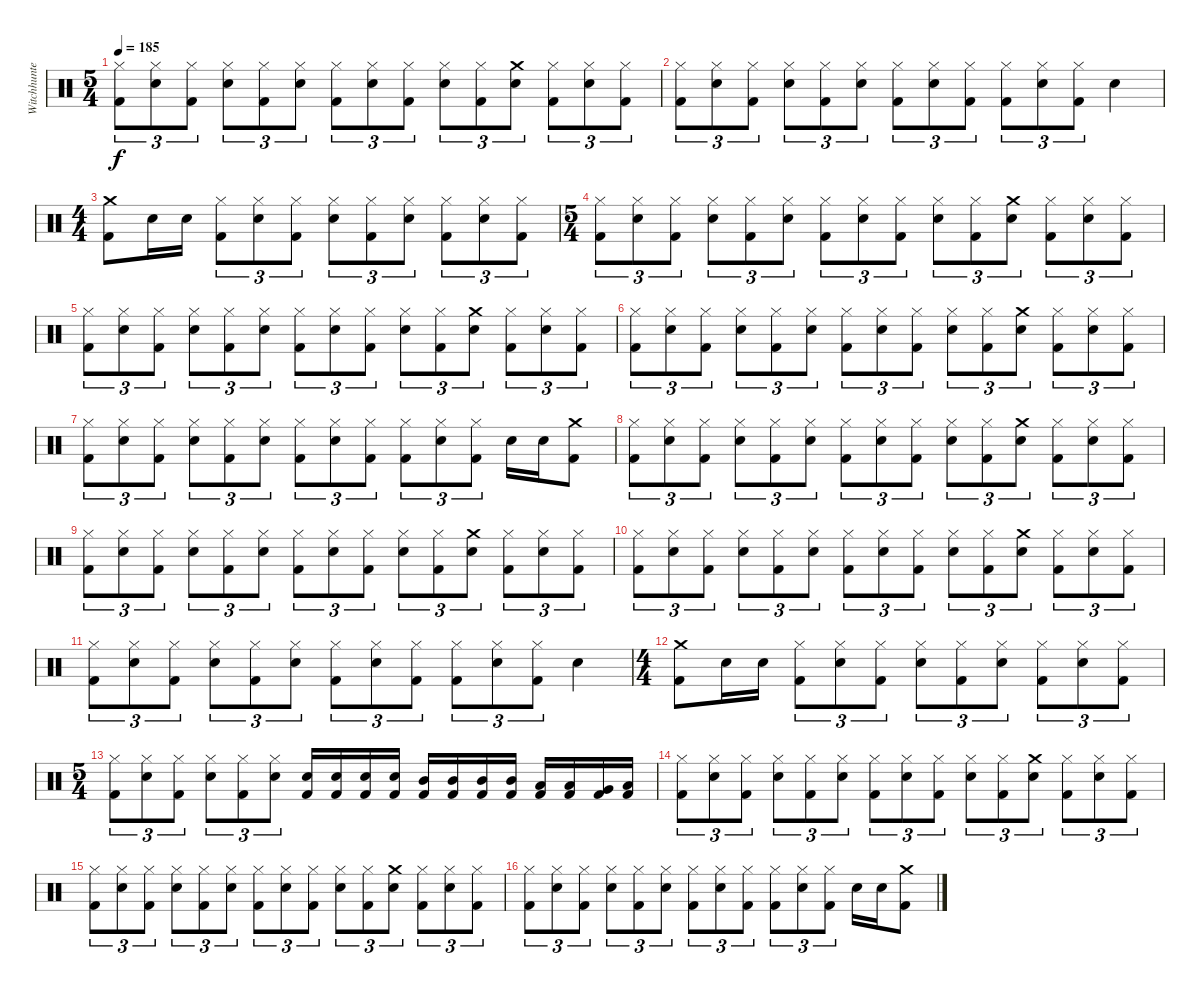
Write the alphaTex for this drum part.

\track ("Witchhunter" "Witchhunte") {instrument percussion}
\staff {score}
\articulation defaults
\ts (5 4)
\tempo 185
\clef neutral
\ks c
("Hi-Hat (closed)" "Kick (hit) 2").8{tu (3 2) dy f} ("Hi-Hat (closed)" "Snare (hit) 2").8{tu (3 2)} ("Hi-Hat (closed)" "Kick (hit) 2").8{tu (3 2)} ("Hi-Hat (closed)" "Snare (hit) 2").8{tu (3 2)} ("Hi-Hat (closed)" "Kick (hit) 2").8{tu (3 2)} ("Hi-Hat (closed)" "Snare (hit) 2").8{tu (3 2)} ("Hi-Hat (closed)" "Kick (hit) 2").8{tu (3 2)} ("Hi-Hat (closed)" "Snare (hit) 2").8{tu (3 2)} ("Hi-Hat (closed)" "Kick (hit) 2").8{tu (3 2)} ("Hi-Hat (closed)" "Snare (hit) 2").8{tu (3 2)} ("Hi-Hat (closed)" "Kick (hit) 2").8{tu (3 2)} ("Crash medium (hit)" "Snare (hit) 2").8{tu (3 2)} ("Hi-Hat (closed)" "Kick (hit) 2").8{tu (3 2)} ("Hi-Hat (closed)" "Snare (hit) 2").8{tu (3 2)} ("Hi-Hat (closed)" "Kick (hit) 2").8{tu (3 2)} |
("Hi-Hat (closed)" "Kick (hit) 2").8{tu (3 2)} ("Hi-Hat (closed)" "Snare (hit) 2").8{tu (3 2)} ("Hi-Hat (closed)" "Kick (hit) 2").8{tu (3 2)} ("Hi-Hat (closed)" "Snare (hit) 2").8{tu (3 2)} ("Hi-Hat (closed)" "Kick (hit) 2").8{tu (3 2)} ("Hi-Hat (closed)" "Snare (hit) 2").8{tu (3 2)} ("Hi-Hat (closed)" "Kick (hit) 2").8{tu (3 2)} ("Hi-Hat (closed)" "Snare (hit) 2").8{tu (3 2)} ("Hi-Hat (closed)" "Kick (hit) 2").8{tu (3 2)} ("Hi-Hat (closed)" "Kick (hit) 2").8{tu (3 2)} ("Hi-Hat (closed)" "Snare (hit) 2").8{tu (3 2)} ("Hi-Hat (closed)" "Kick (hit) 2").8{tu (3 2)} "Snare (hit) 2".4 |
\ts (4 4)
("Crash medium (hit)" "Kick (hit) 2").8 "Snare (hit) 2".16 "Snare (hit) 2".16 ("Hi-Hat (closed)" "Kick (hit) 2").8{tu (3 2)} ("Hi-Hat (closed)" "Snare (hit) 2").8{tu (3 2)} ("Hi-Hat (closed)" "Kick (hit) 2").8{tu (3 2)} ("Hi-Hat (closed)" "Snare (hit) 2").8{tu (3 2)} ("Hi-Hat (closed)" "Kick (hit) 2").8{tu (3 2)} ("Hi-Hat (closed)" "Snare (hit) 2").8{tu (3 2)} ("Hi-Hat (closed)" "Kick (hit) 2").8{tu (3 2)} ("Hi-Hat (closed)" "Snare (hit) 2").8{tu (3 2)} ("Hi-Hat (closed)" "Kick (hit) 2").8{tu (3 2)} |
\ts (5 4)
("Hi-Hat (closed)" "Kick (hit) 2").8{tu (3 2)} ("Hi-Hat (closed)" "Snare (hit) 2").8{tu (3 2)} ("Hi-Hat (closed)" "Kick (hit) 2").8{tu (3 2)} ("Hi-Hat (closed)" "Snare (hit) 2").8{tu (3 2)} ("Hi-Hat (closed)" "Kick (hit) 2").8{tu (3 2)} ("Hi-Hat (closed)" "Snare (hit) 2").8{tu (3 2)} ("Hi-Hat (closed)" "Kick (hit) 2").8{tu (3 2)} ("Hi-Hat (closed)" "Snare (hit) 2").8{tu (3 2)} ("Hi-Hat (closed)" "Kick (hit) 2").8{tu (3 2)} ("Hi-Hat (closed)" "Snare (hit) 2").8{tu (3 2)} ("Hi-Hat (closed)" "Kick (hit) 2").8{tu (3 2)} ("Crash medium (hit)" "Snare (hit) 2").8{tu (3 2)} ("Hi-Hat (closed)" "Kick (hit) 2").8{tu (3 2)} ("Hi-Hat (closed)" "Snare (hit) 2").8{tu (3 2)} ("Hi-Hat (closed)" "Kick (hit) 2").8{tu (3 2)} |
("Hi-Hat (closed)" "Kick (hit) 2").8{tu (3 2)} ("Hi-Hat (closed)" "Snare (hit) 2").8{tu (3 2)} ("Hi-Hat (closed)" "Kick (hit) 2").8{tu (3 2)} ("Hi-Hat (closed)" "Snare (hit) 2").8{tu (3 2)} ("Hi-Hat (closed)" "Kick (hit) 2").8{tu (3 2)} ("Hi-Hat (closed)" "Snare (hit) 2").8{tu (3 2)} ("Hi-Hat (closed)" "Kick (hit) 2").8{tu (3 2)} ("Hi-Hat (closed)" "Snare (hit) 2").8{tu (3 2)} ("Hi-Hat (closed)" "Kick (hit) 2").8{tu (3 2)} ("Hi-Hat (closed)" "Snare (hit) 2").8{tu (3 2)} ("Hi-Hat (closed)" "Kick (hit) 2").8{tu (3 2)} ("Crash medium (hit)" "Snare (hit) 2").8{tu (3 2)} ("Hi-Hat (closed)" "Kick (hit) 2").8{tu (3 2)} ("Hi-Hat (closed)" "Snare (hit) 2").8{tu (3 2)} ("Hi-Hat (closed)" "Kick (hit) 2").8{tu (3 2)} |
("Hi-Hat (closed)" "Kick (hit) 2").8{tu (3 2)} ("Hi-Hat (closed)" "Snare (hit) 2").8{tu (3 2)} ("Hi-Hat (closed)" "Kick (hit) 2").8{tu (3 2)} ("Hi-Hat (closed)" "Snare (hit) 2").8{tu (3 2)} ("Hi-Hat (closed)" "Kick (hit) 2").8{tu (3 2)} ("Hi-Hat (closed)" "Snare (hit) 2").8{tu (3 2)} ("Hi-Hat (closed)" "Kick (hit) 2").8{tu (3 2)} ("Hi-Hat (closed)" "Snare (hit) 2").8{tu (3 2)} ("Hi-Hat (closed)" "Kick (hit) 2").8{tu (3 2)} ("Hi-Hat (closed)" "Snare (hit) 2").8{tu (3 2)} ("Hi-Hat (closed)" "Kick (hit) 2").8{tu (3 2)} ("Crash medium (hit)" "Snare (hit) 2").8{tu (3 2)} ("Hi-Hat (closed)" "Kick (hit) 2").8{tu (3 2)} ("Hi-Hat (closed)" "Snare (hit) 2").8{tu (3 2)} ("Hi-Hat (closed)" "Kick (hit) 2").8{tu (3 2)} |
("Hi-Hat (closed)" "Kick (hit) 2").8{tu (3 2)} ("Hi-Hat (closed)" "Snare (hit) 2").8{tu (3 2)} ("Hi-Hat (closed)" "Kick (hit) 2").8{tu (3 2)} ("Hi-Hat (closed)" "Snare (hit) 2").8{tu (3 2)} ("Hi-Hat (closed)" "Kick (hit) 2").8{tu (3 2)} ("Hi-Hat (closed)" "Snare (hit) 2").8{tu (3 2)} ("Hi-Hat (closed)" "Kick (hit) 2").8{tu (3 2)} ("Hi-Hat (closed)" "Snare (hit) 2").8{tu (3 2)} ("Hi-Hat (closed)" "Kick (hit) 2").8{tu (3 2)} ("Hi-Hat (closed)" "Kick (hit) 2").8{tu (3 2)} ("Hi-Hat (closed)" "Snare (hit) 2").8{tu (3 2)} ("Hi-Hat (closed)" "Kick (hit) 2").8{tu (3 2)} "Snare (hit) 2".16 "Snare (hit) 2".16 ("Crash medium (hit)" "Kick (hit) 2").8 |
("Hi-Hat (closed)" "Kick (hit) 2").8{tu (3 2)} ("Hi-Hat (closed)" "Snare (hit) 2").8{tu (3 2)} ("Hi-Hat (closed)" "Kick (hit) 2").8{tu (3 2)} ("Hi-Hat (closed)" "Snare (hit) 2").8{tu (3 2)} ("Hi-Hat (closed)" "Kick (hit) 2").8{tu (3 2)} ("Hi-Hat (closed)" "Snare (hit) 2").8{tu (3 2)} ("Hi-Hat (closed)" "Kick (hit) 2").8{tu (3 2)} ("Hi-Hat (closed)" "Snare (hit) 2").8{tu (3 2)} ("Hi-Hat (closed)" "Kick (hit) 2").8{tu (3 2)} ("Hi-Hat (closed)" "Snare (hit) 2").8{tu (3 2)} ("Hi-Hat (closed)" "Kick (hit) 2").8{tu (3 2)} ("Crash medium (hit)" "Snare (hit) 2").8{tu (3 2)} ("Hi-Hat (closed)" "Kick (hit) 2").8{tu (3 2)} ("Hi-Hat (closed)" "Snare (hit) 2").8{tu (3 2)} ("Hi-Hat (closed)" "Kick (hit) 2").8{tu (3 2)} |
("Hi-Hat (closed)" "Kick (hit) 2").8{tu (3 2)} ("Hi-Hat (closed)" "Snare (hit) 2").8{tu (3 2)} ("Hi-Hat (closed)" "Kick (hit) 2").8{tu (3 2)} ("Hi-Hat (closed)" "Snare (hit) 2").8{tu (3 2)} ("Hi-Hat (closed)" "Kick (hit) 2").8{tu (3 2)} ("Hi-Hat (closed)" "Snare (hit) 2").8{tu (3 2)} ("Hi-Hat (closed)" "Kick (hit) 2").8{tu (3 2)} ("Hi-Hat (closed)" "Snare (hit) 2").8{tu (3 2)} ("Hi-Hat (closed)" "Kick (hit) 2").8{tu (3 2)} ("Hi-Hat (closed)" "Snare (hit) 2").8{tu (3 2)} ("Hi-Hat (closed)" "Kick (hit) 2").8{tu (3 2)} ("Crash medium (hit)" "Snare (hit) 2").8{tu (3 2)} ("Hi-Hat (closed)" "Kick (hit) 2").8{tu (3 2)} ("Hi-Hat (closed)" "Snare (hit) 2").8{tu (3 2)} ("Hi-Hat (closed)" "Kick (hit) 2").8{tu (3 2)} |
("Hi-Hat (closed)" "Kick (hit) 2").8{tu (3 2)} ("Hi-Hat (closed)" "Snare (hit) 2").8{tu (3 2)} ("Hi-Hat (closed)" "Kick (hit) 2").8{tu (3 2)} ("Hi-Hat (closed)" "Snare (hit) 2").8{tu (3 2)} ("Hi-Hat (closed)" "Kick (hit) 2").8{tu (3 2)} ("Hi-Hat (closed)" "Snare (hit) 2").8{tu (3 2)} ("Hi-Hat (closed)" "Kick (hit) 2").8{tu (3 2)} ("Hi-Hat (closed)" "Snare (hit) 2").8{tu (3 2)} ("Hi-Hat (closed)" "Kick (hit) 2").8{tu (3 2)} ("Hi-Hat (closed)" "Snare (hit) 2").8{tu (3 2)} ("Hi-Hat (closed)" "Kick (hit) 2").8{tu (3 2)} ("Crash medium (hit)" "Snare (hit) 2").8{tu (3 2)} ("Hi-Hat (closed)" "Kick (hit) 2").8{tu (3 2)} ("Hi-Hat (closed)" "Snare (hit) 2").8{tu (3 2)} ("Hi-Hat (closed)" "Kick (hit) 2").8{tu (3 2)} |
("Hi-Hat (closed)" "Kick (hit) 2").8{tu (3 2)} ("Hi-Hat (closed)" "Snare (hit) 2").8{tu (3 2)} ("Hi-Hat (closed)" "Kick (hit) 2").8{tu (3 2)} ("Hi-Hat (closed)" "Snare (hit) 2").8{tu (3 2)} ("Hi-Hat (closed)" "Kick (hit) 2").8{tu (3 2)} ("Hi-Hat (closed)" "Snare (hit) 2").8{tu (3 2)} ("Hi-Hat (closed)" "Kick (hit) 2").8{tu (3 2)} ("Hi-Hat (closed)" "Snare (hit) 2").8{tu (3 2)} ("Hi-Hat (closed)" "Kick (hit) 2").8{tu (3 2)} ("Hi-Hat (closed)" "Kick (hit) 2").8{tu (3 2)} ("Hi-Hat (closed)" "Snare (hit) 2").8{tu (3 2)} ("Hi-Hat (closed)" "Kick (hit) 2").8{tu (3 2)} "Snare (hit) 2".4 |
\ts (4 4)
("Crash medium (hit)" "Kick (hit) 2").8 "Snare (hit) 2".16 "Snare (hit) 2".16 ("Hi-Hat (closed)" "Kick (hit) 2").8{tu (3 2)} ("Hi-Hat (closed)" "Snare (hit) 2").8{tu (3 2)} ("Hi-Hat (closed)" "Kick (hit) 2").8{tu (3 2)} ("Hi-Hat (closed)" "Snare (hit) 2").8{tu (3 2)} ("Hi-Hat (closed)" "Kick (hit) 2").8{tu (3 2)} ("Hi-Hat (closed)" "Snare (hit) 2").8{tu (3 2)} ("Hi-Hat (closed)" "Kick (hit) 2").8{tu (3 2)} ("Hi-Hat (closed)" "Snare (hit) 2").8{tu (3 2)} ("Hi-Hat (closed)" "Kick (hit) 2").8{tu (3 2)} |
\ts (5 4)
("Hi-Hat (closed)" "Kick (hit) 2").8{tu (3 2)} ("Hi-Hat (closed)" "Snare (hit) 2").8{tu (3 2)} ("Hi-Hat (closed)" "Kick (hit) 2").8{tu (3 2)} ("Hi-Hat (closed)" "Snare (hit) 2").8{tu (3 2)} ("Hi-Hat (closed)" "Kick (hit) 2").8{tu (3 2)} ("Hi-Hat (closed)" "Snare (hit) 2").8{tu (3 2)} ("Snare (hit) 2" "Kick (hit) 2").16 ("Snare (hit) 2" "Kick (hit) 2").16 ("Snare (hit) 2" "Kick (hit) 2").16 ("Snare (hit) 2" "Kick (hit) 2").16 ("Mid Tom (hit)" "Kick (hit) 2").16 ("Mid Tom (hit)" "Kick (hit) 2").16 ("Mid Tom (hit)" "Kick (hit) 2").16 ("Mid Tom (hit)" "Kick (hit) 2").16 ("Low Tom (hit)" "Kick (hit) 2").16 ("Low Tom (hit)" "Kick (hit) 2").16 ("Very Low Tom (hit)" "Kick (hit) 2").16 ("Low Floor Tom (hit)" "Kick (hit) 2").16 |
("Hi-Hat (closed)" "Kick (hit) 2").8{tu (3 2)} ("Hi-Hat (closed)" "Snare (hit) 2").8{tu (3 2)} ("Hi-Hat (closed)" "Kick (hit) 2").8{tu (3 2)} ("Hi-Hat (closed)" "Snare (hit) 2").8{tu (3 2)} ("Hi-Hat (closed)" "Kick (hit) 2").8{tu (3 2)} ("Hi-Hat (closed)" "Snare (hit) 2").8{tu (3 2)} ("Hi-Hat (closed)" "Kick (hit) 2").8{tu (3 2)} ("Hi-Hat (closed)" "Snare (hit) 2").8{tu (3 2)} ("Hi-Hat (closed)" "Kick (hit) 2").8{tu (3 2)} ("Hi-Hat (closed)" "Snare (hit) 2").8{tu (3 2)} ("Hi-Hat (closed)" "Kick (hit) 2").8{tu (3 2)} ("Crash medium (hit)" "Snare (hit) 2").8{tu (3 2)} ("Hi-Hat (closed)" "Kick (hit) 2").8{tu (3 2)} ("Hi-Hat (closed)" "Snare (hit) 2").8{tu (3 2)} ("Hi-Hat (closed)" "Kick (hit) 2").8{tu (3 2)} |
("Hi-Hat (closed)" "Kick (hit) 2").8{tu (3 2)} ("Hi-Hat (closed)" "Snare (hit) 2").8{tu (3 2)} ("Hi-Hat (closed)" "Kick (hit) 2").8{tu (3 2)} ("Hi-Hat (closed)" "Snare (hit) 2").8{tu (3 2)} ("Hi-Hat (closed)" "Kick (hit) 2").8{tu (3 2)} ("Hi-Hat (closed)" "Snare (hit) 2").8{tu (3 2)} ("Hi-Hat (closed)" "Kick (hit) 2").8{tu (3 2)} ("Hi-Hat (closed)" "Snare (hit) 2").8{tu (3 2)} ("Hi-Hat (closed)" "Kick (hit) 2").8{tu (3 2)} ("Hi-Hat (closed)" "Snare (hit) 2").8{tu (3 2)} ("Hi-Hat (closed)" "Kick (hit) 2").8{tu (3 2)} ("Crash medium (hit)" "Snare (hit) 2").8{tu (3 2)} ("Hi-Hat (closed)" "Kick (hit) 2").8{tu (3 2)} ("Hi-Hat (closed)" "Snare (hit) 2").8{tu (3 2)} ("Hi-Hat (closed)" "Kick (hit) 2").8{tu (3 2)} |
("Hi-Hat (closed)" "Kick (hit) 2").8{tu (3 2)} ("Hi-Hat (closed)" "Snare (hit) 2").8{tu (3 2)} ("Hi-Hat (closed)" "Kick (hit) 2").8{tu (3 2)} ("Hi-Hat (closed)" "Snare (hit) 2").8{tu (3 2)} ("Hi-Hat (closed)" "Kick (hit) 2").8{tu (3 2)} ("Hi-Hat (closed)" "Snare (hit) 2").8{tu (3 2)} ("Hi-Hat (closed)" "Kick (hit) 2").8{tu (3 2)} ("Hi-Hat (closed)" "Snare (hit) 2").8{tu (3 2)} ("Hi-Hat (closed)" "Kick (hit) 2").8{tu (3 2)} ("Hi-Hat (closed)" "Kick (hit) 2").8{tu (3 2)} ("Hi-Hat (closed)" "Snare (hit) 2").8{tu (3 2)} ("Hi-Hat (closed)" "Kick (hit) 2").8{tu (3 2)} "Snare (hit) 2".16 "Snare (hit) 2".16 ("Crash medium (hit)" "Kick (hit) 2").8
